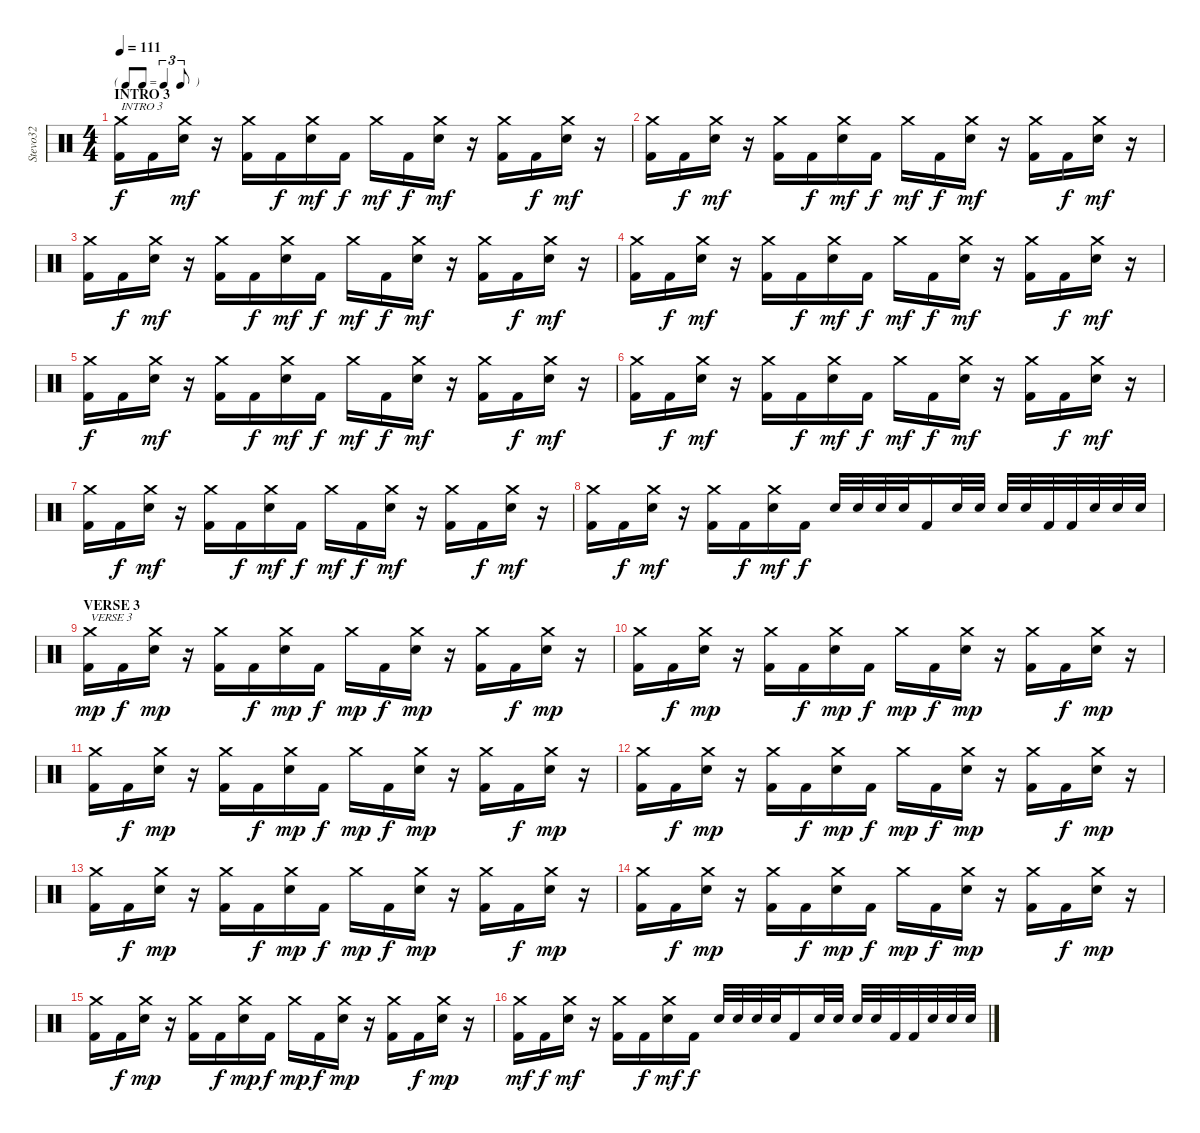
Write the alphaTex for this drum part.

\track ("Stevo32" "Stevo32") {instrument percussion}
\staff {score}
\articulation defaults
\ts (4 4)
\tf triplet8th
\section ("" "INTRO 3")
\tempo 111
\clef neutral
\ks c
("Crash medium (hit)" "Kick (hit) 2").16{txt "INTRO 3" dy f} "Kick (hit) 2".16 ("Crash medium (hit)" "Electric Snare (hit)").16{dy mf} r.16 ("Crash medium (hit)" "Kick (hit) 2").16 "Kick (hit) 2".16{dy f} ("Crash medium (hit)" "Electric Snare (hit)").16{dy mf} "Kick (hit) 2".16{dy f} "Crash medium (hit)".16{dy mf} "Kick (hit) 2".16{dy f} ("Crash medium (hit)" "Electric Snare (hit)").16{dy mf} r.16 ("Crash medium (hit)" "Kick (hit) 2").16 "Kick (hit) 2".16{dy f} ("Crash medium (hit)" "Electric Snare (hit)").16{dy mf} r.16 |
("Crash medium (hit)" "Kick (hit) 2").16 "Kick (hit) 2".16{dy f} ("Crash medium (hit)" "Electric Snare (hit)").16{dy mf} r.16 ("Crash medium (hit)" "Kick (hit) 2").16 "Kick (hit) 2".16{dy f} ("Crash medium (hit)" "Electric Snare (hit)").16{dy mf} "Kick (hit) 2".16{dy f} "Crash medium (hit)".16{dy mf} "Kick (hit) 2".16{dy f} ("Crash medium (hit)" "Electric Snare (hit)").16{dy mf} r.16 ("Crash medium (hit)" "Kick (hit) 2").16 "Kick (hit) 2".16{dy f} ("Crash medium (hit)" "Electric Snare (hit)").16{dy mf} r.16 |
("Crash medium (hit)" "Kick (hit) 2").16 "Kick (hit) 2".16{dy f} ("Crash medium (hit)" "Electric Snare (hit)").16{dy mf} r.16 ("Crash medium (hit)" "Kick (hit) 2").16 "Kick (hit) 2".16{dy f} ("Crash medium (hit)" "Electric Snare (hit)").16{dy mf} "Kick (hit) 2".16{dy f} "Crash medium (hit)".16{dy mf} "Kick (hit) 2".16{dy f} ("Crash medium (hit)" "Electric Snare (hit)").16{dy mf} r.16 ("Crash medium (hit)" "Kick (hit) 2").16 "Kick (hit) 2".16{dy f} ("Crash medium (hit)" "Electric Snare (hit)").16{dy mf} r.16 |
("Crash medium (hit)" "Kick (hit) 2").16 "Kick (hit) 2".16{dy f} ("Crash medium (hit)" "Electric Snare (hit)").16{dy mf} r.16 ("Crash medium (hit)" "Kick (hit) 2").16 "Kick (hit) 2".16{dy f} ("Crash medium (hit)" "Electric Snare (hit)").16{dy mf} "Kick (hit) 2".16{dy f} "Crash medium (hit)".16{dy mf} "Kick (hit) 2".16{dy f} ("Crash medium (hit)" "Electric Snare (hit)").16{dy mf} r.16 ("Crash medium (hit)" "Kick (hit) 2").16 "Kick (hit) 2".16{dy f} ("Crash medium (hit)" "Electric Snare (hit)").16{dy mf} r.16 |
("Crash medium (hit)" "Kick (hit) 2").16{dy f} "Kick (hit) 2".16 ("Crash medium (hit)" "Electric Snare (hit)").16{dy mf} r.16 ("Crash medium (hit)" "Kick (hit) 2").16 "Kick (hit) 2".16{dy f} ("Crash medium (hit)" "Electric Snare (hit)").16{dy mf} "Kick (hit) 2".16{dy f} "Crash medium (hit)".16{dy mf} "Kick (hit) 2".16{dy f} ("Crash medium (hit)" "Electric Snare (hit)").16{dy mf} r.16 ("Crash medium (hit)" "Kick (hit) 2").16 "Kick (hit) 2".16{dy f} ("Crash medium (hit)" "Electric Snare (hit)").16{dy mf} r.16 |
("Crash medium (hit)" "Kick (hit) 2").16 "Kick (hit) 2".16{dy f} ("Crash medium (hit)" "Electric Snare (hit)").16{dy mf} r.16 ("Crash medium (hit)" "Kick (hit) 2").16 "Kick (hit) 2".16{dy f} ("Crash medium (hit)" "Electric Snare (hit)").16{dy mf} "Kick (hit) 2".16{dy f} "Crash medium (hit)".16{dy mf} "Kick (hit) 2".16{dy f} ("Crash medium (hit)" "Electric Snare (hit)").16{dy mf} r.16 ("Crash medium (hit)" "Kick (hit) 2").16 "Kick (hit) 2".16{dy f} ("Crash medium (hit)" "Electric Snare (hit)").16{dy mf} r.16 |
("Crash medium (hit)" "Kick (hit) 2").16 "Kick (hit) 2".16{dy f} ("Crash medium (hit)" "Electric Snare (hit)").16{dy mf} r.16 ("Crash medium (hit)" "Kick (hit) 2").16 "Kick (hit) 2".16{dy f} ("Crash medium (hit)" "Electric Snare (hit)").16{dy mf} "Kick (hit) 2".16{dy f} "Crash medium (hit)".16{dy mf} "Kick (hit) 2".16{dy f} ("Crash medium (hit)" "Electric Snare (hit)").16{dy mf} r.16 ("Crash medium (hit)" "Kick (hit) 2").16 "Kick (hit) 2".16{dy f} ("Crash medium (hit)" "Electric Snare (hit)").16{dy mf} r.16 |
("Crash medium (hit)" "Kick (hit) 2").16 "Kick (hit) 2".16{dy f} ("Crash medium (hit)" "Electric Snare (hit)").16{dy mf} r.16 ("Crash medium (hit)" "Kick (hit) 2").16 "Kick (hit) 2".16{dy f} ("Crash medium (hit)" "Electric Snare (hit)").16{dy mf} "Kick (hit) 2".16{dy f} "Electric Snare (hit)".32 "Electric Snare (hit)".32 "Electric Snare (hit)".32 "Electric Snare (hit)".32 "Kick (hit) 2".16 "Electric Snare (hit)".32 "Electric Snare (hit)".32 "Electric Snare (hit)".32 "Electric Snare (hit)".32 "Kick (hit) 2".32 "Kick (hit) 2".32 "Electric Snare (hit)".32 "Electric Snare (hit)".32 "Electric Snare (hit)".32 |
\section ("" "VERSE 3")
("Crash medium (hit)" "Kick (hit) 2").16{txt "VERSE 3" dy mp} "Kick (hit) 2".16{dy f} ("Crash medium (hit)" "Electric Snare (hit)").16{dy mp} r.16 ("Crash medium (hit)" "Kick (hit) 2").16 "Kick (hit) 2".16{dy f} ("Crash medium (hit)" "Electric Snare (hit)").16{dy mp} "Kick (hit) 2".16{dy f} "Crash medium (hit)".16{dy mp} "Kick (hit) 2".16{dy f} ("Crash medium (hit)" "Electric Snare (hit)").16{dy mp} r.16 ("Crash medium (hit)" "Kick (hit) 2").16 "Kick (hit) 2".16{dy f} ("Crash medium (hit)" "Electric Snare (hit)").16{dy mp} r.16 |
("Crash medium (hit)" "Kick (hit) 2").16 "Kick (hit) 2".16{dy f} ("Crash medium (hit)" "Electric Snare (hit)").16{dy mp} r.16 ("Crash medium (hit)" "Kick (hit) 2").16 "Kick (hit) 2".16{dy f} ("Crash medium (hit)" "Electric Snare (hit)").16{dy mp} "Kick (hit) 2".16{dy f} "Crash medium (hit)".16{dy mp} "Kick (hit) 2".16{dy f} ("Crash medium (hit)" "Electric Snare (hit)").16{dy mp} r.16 ("Crash medium (hit)" "Kick (hit) 2").16 "Kick (hit) 2".16{dy f} ("Crash medium (hit)" "Electric Snare (hit)").16{dy mp} r.16 |
("Crash medium (hit)" "Kick (hit) 2").16 "Kick (hit) 2".16{dy f} ("Crash medium (hit)" "Electric Snare (hit)").16{dy mp} r.16 ("Crash medium (hit)" "Kick (hit) 2").16 "Kick (hit) 2".16{dy f} ("Crash medium (hit)" "Electric Snare (hit)").16{dy mp} "Kick (hit) 2".16{dy f} "Crash medium (hit)".16{dy mp} "Kick (hit) 2".16{dy f} ("Crash medium (hit)" "Electric Snare (hit)").16{dy mp} r.16 ("Crash medium (hit)" "Kick (hit) 2").16 "Kick (hit) 2".16{dy f} ("Crash medium (hit)" "Electric Snare (hit)").16{dy mp} r.16 |
("Crash medium (hit)" "Kick (hit) 2").16 "Kick (hit) 2".16{dy f} ("Crash medium (hit)" "Electric Snare (hit)").16{dy mp} r.16 ("Crash medium (hit)" "Kick (hit) 2").16 "Kick (hit) 2".16{dy f} ("Crash medium (hit)" "Electric Snare (hit)").16{dy mp} "Kick (hit) 2".16{dy f} "Crash medium (hit)".16{dy mp} "Kick (hit) 2".16{dy f} ("Crash medium (hit)" "Electric Snare (hit)").16{dy mp} r.16 ("Crash medium (hit)" "Kick (hit) 2").16 "Kick (hit) 2".16{dy f} ("Crash medium (hit)" "Electric Snare (hit)").16{dy mp} r.16 |
("Crash medium (hit)" "Kick (hit) 2").16 "Kick (hit) 2".16{dy f} ("Crash medium (hit)" "Electric Snare (hit)").16{dy mp} r.16 ("Crash medium (hit)" "Kick (hit) 2").16 "Kick (hit) 2".16{dy f} ("Crash medium (hit)" "Electric Snare (hit)").16{dy mp} "Kick (hit) 2".16{dy f} "Crash medium (hit)".16{dy mp} "Kick (hit) 2".16{dy f} ("Crash medium (hit)" "Electric Snare (hit)").16{dy mp} r.16 ("Crash medium (hit)" "Kick (hit) 2").16 "Kick (hit) 2".16{dy f} ("Crash medium (hit)" "Electric Snare (hit)").16{dy mp} r.16 |
("Crash medium (hit)" "Kick (hit) 2").16 "Kick (hit) 2".16{dy f} ("Crash medium (hit)" "Electric Snare (hit)").16{dy mp} r.16 ("Crash medium (hit)" "Kick (hit) 2").16 "Kick (hit) 2".16{dy f} ("Crash medium (hit)" "Electric Snare (hit)").16{dy mp} "Kick (hit) 2".16{dy f} "Crash medium (hit)".16{dy mp} "Kick (hit) 2".16{dy f} ("Crash medium (hit)" "Electric Snare (hit)").16{dy mp} r.16 ("Crash medium (hit)" "Kick (hit) 2").16 "Kick (hit) 2".16{dy f} ("Crash medium (hit)" "Electric Snare (hit)").16{dy mp} r.16 |
("Crash medium (hit)" "Kick (hit) 2").16 "Kick (hit) 2".16{dy f} ("Crash medium (hit)" "Electric Snare (hit)").16{dy mp} r.16 ("Crash medium (hit)" "Kick (hit) 2").16 "Kick (hit) 2".16{dy f} ("Crash medium (hit)" "Electric Snare (hit)").16{dy mp} "Kick (hit) 2".16{dy f} "Crash medium (hit)".16{dy mp} "Kick (hit) 2".16{dy f} ("Crash medium (hit)" "Electric Snare (hit)").16{dy mp} r.16 ("Crash medium (hit)" "Kick (hit) 2").16 "Kick (hit) 2".16{dy f} ("Crash medium (hit)" "Electric Snare (hit)").16{dy mp} r.16 |
("Crash medium (hit)" "Kick (hit) 2").16{dy mf} "Kick (hit) 2".16{dy f} ("Crash medium (hit)" "Electric Snare (hit)").16{dy mf} r.16 ("Crash medium (hit)" "Kick (hit) 2").16 "Kick (hit) 2".16{dy f} ("Crash medium (hit)" "Electric Snare (hit)").16{dy mf} "Kick (hit) 2".16{dy f} "Electric Snare (hit)".32 "Electric Snare (hit)".32 "Electric Snare (hit)".32 "Electric Snare (hit)".32 "Kick (hit) 2".16 "Electric Snare (hit)".32 "Electric Snare (hit)".32 "Electric Snare (hit)".32 "Electric Snare (hit)".32 "Kick (hit) 2".32 "Kick (hit) 2".32 "Electric Snare (hit)".32 "Electric Snare (hit)".32 "Electric Snare (hit)".32
